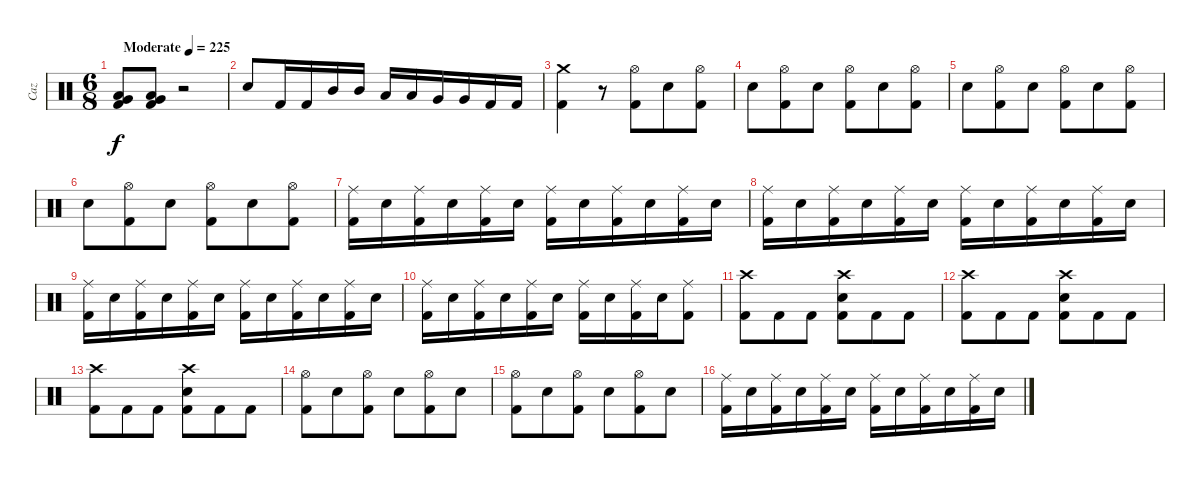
\track ("Caz" "Caz") {instrument percussion}
\staff {score}
\articulation defaults
\ts (6 8)
\tempo (225 "Moderate")
\clef neutral
\ks c
("Very Low Tom (hit)" "Low Floor Tom (hit)" "Kick (hit) 2").8{dy f} ("Very Low Tom (hit)" "Low Floor Tom (hit)" "Kick (hit) 2").8 r.2 |
"Electric Snare (hit)".8 "Kick (hit) 2".16 "Kick (hit) 2".16 "Mid Tom (hit)".16 "Mid Tom (hit)".16 "Low Tom (hit)".16 "Low Tom (hit)".16 "Very Low Tom (hit)".16 "Very Low Tom (hit)".16 "Kick (hit) 2".16 "Kick (hit) 2".16 |
("Crash medium (hit)" "Kick (hit) 2").4 r.8 ("Hi-Hat (open)" "Kick (hit) 2").8 "Electric Snare (hit)".8 ("Hi-Hat (open)" "Kick (hit) 2").8 |
"Electric Snare (hit)".8 ("Hi-Hat (open)" "Kick (hit) 2").8 "Electric Snare (hit)".8 ("Hi-Hat (open)" "Kick (hit) 2").8 "Electric Snare (hit)".8 ("Hi-Hat (open)" "Kick (hit) 2").8 |
"Electric Snare (hit)".8 ("Hi-Hat (open)" "Kick (hit) 2").8 "Electric Snare (hit)".8 ("Hi-Hat (open)" "Kick (hit) 2").8 "Electric Snare (hit)".8 ("Hi-Hat (open)" "Kick (hit) 2").8 |
"Electric Snare (hit)".8 ("Hi-Hat (open)" "Kick (hit) 2").8 "Electric Snare (hit)".8 ("Hi-Hat (open)" "Kick (hit) 2").8 "Electric Snare (hit)".8 ("Hi-Hat (open)" "Kick (hit) 2").8 |
("Ride (middle)" "Kick (hit) 2").16 "Electric Snare (hit)".16 ("Ride (middle)" "Kick (hit) 2").16 "Electric Snare (hit)".16 ("Ride (middle)" "Kick (hit) 2").16 "Electric Snare (hit)".16 ("Ride (middle)" "Kick (hit) 2").16 "Electric Snare (hit)".16 ("Ride (middle)" "Kick (hit) 2").16 "Electric Snare (hit)".16 ("Ride (middle)" "Kick (hit) 2").16 "Electric Snare (hit)".16 |
("Ride (middle)" "Kick (hit) 2").16 "Electric Snare (hit)".16 ("Ride (middle)" "Kick (hit) 2").16 "Electric Snare (hit)".16 ("Ride (middle)" "Kick (hit) 2").16 "Electric Snare (hit)".16 ("Ride (middle)" "Kick (hit) 2").16 "Electric Snare (hit)".16 ("Ride (middle)" "Kick (hit) 2").16 "Electric Snare (hit)".16 ("Ride (middle)" "Kick (hit) 2").16 "Electric Snare (hit)".16 |
("Ride (middle)" "Kick (hit) 2").16 "Electric Snare (hit)".16 ("Ride (middle)" "Kick (hit) 2").16 "Electric Snare (hit)".16 ("Ride (middle)" "Kick (hit) 2").16 "Electric Snare (hit)".16 ("Ride (middle)" "Kick (hit) 2").16 "Electric Snare (hit)".16 ("Ride (middle)" "Kick (hit) 2").16 "Electric Snare (hit)".16 ("Ride (middle)" "Kick (hit) 2").16 "Electric Snare (hit)".16 |
("Ride (middle)" "Kick (hit) 2").16 "Electric Snare (hit)".16 ("Ride (middle)" "Kick (hit) 2").16 "Electric Snare (hit)".16 ("Ride (middle)" "Kick (hit) 2").16 "Electric Snare (hit)".16 ("Ride (middle)" "Kick (hit) 2").16 "Electric Snare (hit)".16 ("Ride (middle)" "Kick (hit) 2").16 "Electric Snare (hit)".16 ("Ride (middle)" "Kick (hit) 2").8 |
("Crash high (hit)" "Kick (hit) 2").8 "Kick (hit) 2".8 "Kick (hit) 2".8 ("Crash high (hit)" "Electric Snare (hit)" "Kick (hit) 2").8 "Kick (hit) 2".8 "Kick (hit) 2".8 |
("Crash high (hit)" "Kick (hit) 2").8 "Kick (hit) 2".8 "Kick (hit) 2".8 ("Crash high (hit)" "Electric Snare (hit)" "Kick (hit) 2").8 "Kick (hit) 2".8 "Kick (hit) 2".8 |
("Crash high (hit)" "Kick (hit) 2").8 "Kick (hit) 2".8 "Kick (hit) 2".8 ("Crash high (hit)" "Electric Snare (hit)" "Kick (hit) 2").8 "Kick (hit) 2".8 "Kick (hit) 2".8 |
("Hi-Hat (open)" "Kick (hit) 2").8 "Electric Snare (hit)".8 ("Hi-Hat (open)" "Kick (hit) 2").8 "Electric Snare (hit)".8 ("Hi-Hat (open)" "Kick (hit) 2").8 "Electric Snare (hit)".8 |
("Hi-Hat (open)" "Kick (hit) 2").8 "Electric Snare (hit)".8 ("Hi-Hat (open)" "Kick (hit) 2").8 "Electric Snare (hit)".8 ("Hi-Hat (open)" "Kick (hit) 2").8 "Electric Snare (hit)".8 |
("Ride (middle)" "Kick (hit) 2").16 "Electric Snare (hit)".16 ("Ride (middle)" "Kick (hit) 2").16 "Electric Snare (hit)".16 ("Ride (middle)" "Kick (hit) 2").16 "Electric Snare (hit)".16 ("Ride (middle)" "Kick (hit) 2").16 "Electric Snare (hit)".16 ("Ride (middle)" "Kick (hit) 2").16 "Electric Snare (hit)".16 ("Ride (middle)" "Kick (hit) 2").16 "Electric Snare (hit)".16
